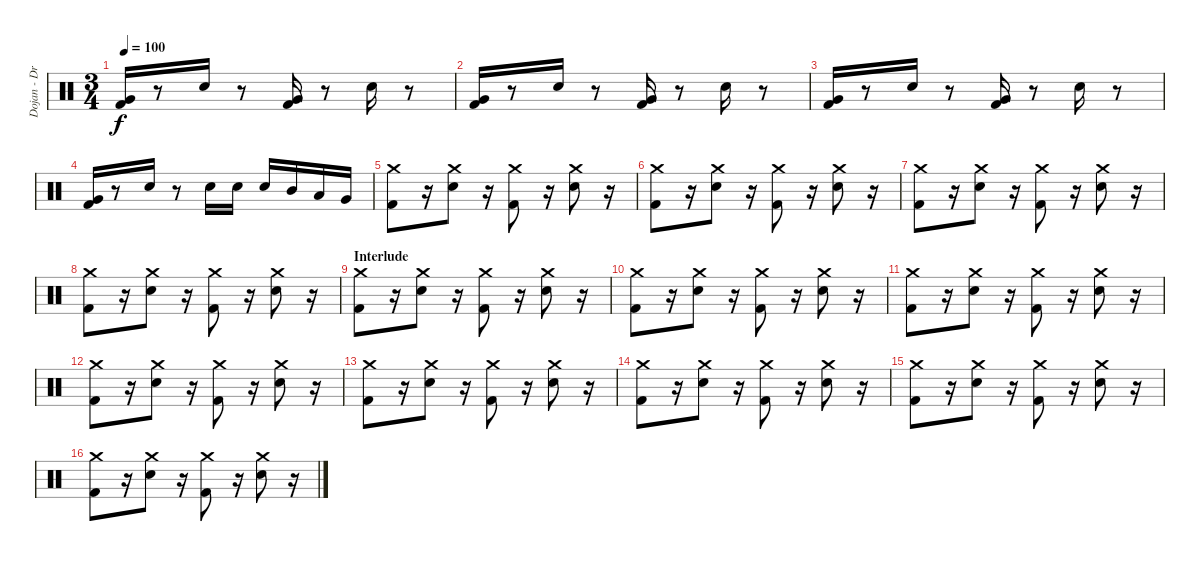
\track ("Dojan - Drums" "Dojan - Dr") {instrument percussion}
\staff {score}
\articulation defaults
\ts (3 4)
\tempo 100
\clef neutral
\ks c
("Very Low Tom (hit)" "Kick (hit) 2").16{dy f} r.8 "Snare (hit) 2".16 r.8 ("Very Low Tom (hit)" "Kick (hit) 2").16 r.8 "Snare (hit) 2".16 r.8 |
("Very Low Tom (hit)" "Kick (hit) 2").16 r.8 "Snare (hit) 2".16 r.8 ("Very Low Tom (hit)" "Kick (hit) 2").16 r.8 "Snare (hit) 2".16 r.8 |
("Very Low Tom (hit)" "Kick (hit) 2").16 r.8 "Snare (hit) 2".16 r.8 ("Very Low Tom (hit)" "Kick (hit) 2").16 r.8 "Snare (hit) 2".16 r.8 |
("Very Low Tom (hit)" "Kick (hit) 2").16 r.8 "Snare (hit) 2".16 r.8 "Snare (hit) 2".16 "Snare (hit) 2".16 "Snare (hit) 2".16 "Mid Tom (hit)".16 "Low Tom (hit)".16 "Very Low Tom (hit)".16 |
("Crash medium (hit)" "Kick (hit) 2").8 r.16 ("Crash medium (hit)" "Snare (hit) 2").8 r.16 ("Crash medium (hit)" "Kick (hit) 2").8 r.16 ("Crash medium (hit)" "Snare (hit) 2").8 r.16 |
("Crash medium (hit)" "Kick (hit) 2").8 r.16 ("Crash medium (hit)" "Snare (hit) 2").8 r.16 ("Crash medium (hit)" "Kick (hit) 2").8 r.16 ("Crash medium (hit)" "Snare (hit) 2").8 r.16 |
("Crash medium (hit)" "Kick (hit) 2").8 r.16 ("Crash medium (hit)" "Snare (hit) 2").8 r.16 ("Crash medium (hit)" "Kick (hit) 2").8 r.16 ("Crash medium (hit)" "Snare (hit) 2").8 r.16 |
("Crash medium (hit)" "Kick (hit) 2").8 r.16 ("Crash medium (hit)" "Snare (hit) 2").8 r.16 ("Crash medium (hit)" "Kick (hit) 2").8 r.16 ("Crash medium (hit)" "Snare (hit) 2").8 r.16 |
\section ("" "Interlude")
("Crash medium (hit)" "Kick (hit) 2").8 r.16 ("Crash medium (hit)" "Snare (hit) 2").8 r.16 ("Crash medium (hit)" "Kick (hit) 2").8 r.16 ("Crash medium (hit)" "Snare (hit) 2").8 r.16 |
("Crash medium (hit)" "Kick (hit) 2").8 r.16 ("Crash medium (hit)" "Snare (hit) 2").8 r.16 ("Crash medium (hit)" "Kick (hit) 2").8 r.16 ("Crash medium (hit)" "Snare (hit) 2").8 r.16 |
("Crash medium (hit)" "Kick (hit) 2").8 r.16 ("Crash medium (hit)" "Snare (hit) 2").8 r.16 ("Crash medium (hit)" "Kick (hit) 2").8 r.16 ("Crash medium (hit)" "Snare (hit) 2").8 r.16 |
("Crash medium (hit)" "Kick (hit) 2").8 r.16 ("Crash medium (hit)" "Snare (hit) 2").8 r.16 ("Crash medium (hit)" "Kick (hit) 2").8 r.16 ("Crash medium (hit)" "Snare (hit) 2").8 r.16 |
("Crash medium (hit)" "Kick (hit) 2").8 r.16 ("Crash medium (hit)" "Snare (hit) 2").8 r.16 ("Crash medium (hit)" "Kick (hit) 2").8 r.16 ("Crash medium (hit)" "Snare (hit) 2").8 r.16 |
("Crash medium (hit)" "Kick (hit) 2").8 r.16 ("Crash medium (hit)" "Snare (hit) 2").8 r.16 ("Crash medium (hit)" "Kick (hit) 2").8 r.16 ("Crash medium (hit)" "Snare (hit) 2").8 r.16 |
("Crash medium (hit)" "Kick (hit) 2").8 r.16 ("Crash medium (hit)" "Snare (hit) 2").8 r.16 ("Crash medium (hit)" "Kick (hit) 2").8 r.16 ("Crash medium (hit)" "Snare (hit) 2").8 r.16 |
("Crash medium (hit)" "Kick (hit) 2").8 r.16 ("Crash medium (hit)" "Snare (hit) 2").8 r.16 ("Crash medium (hit)" "Kick (hit) 2").8 r.16 ("Crash medium (hit)" "Snare (hit) 2").8 r.16
